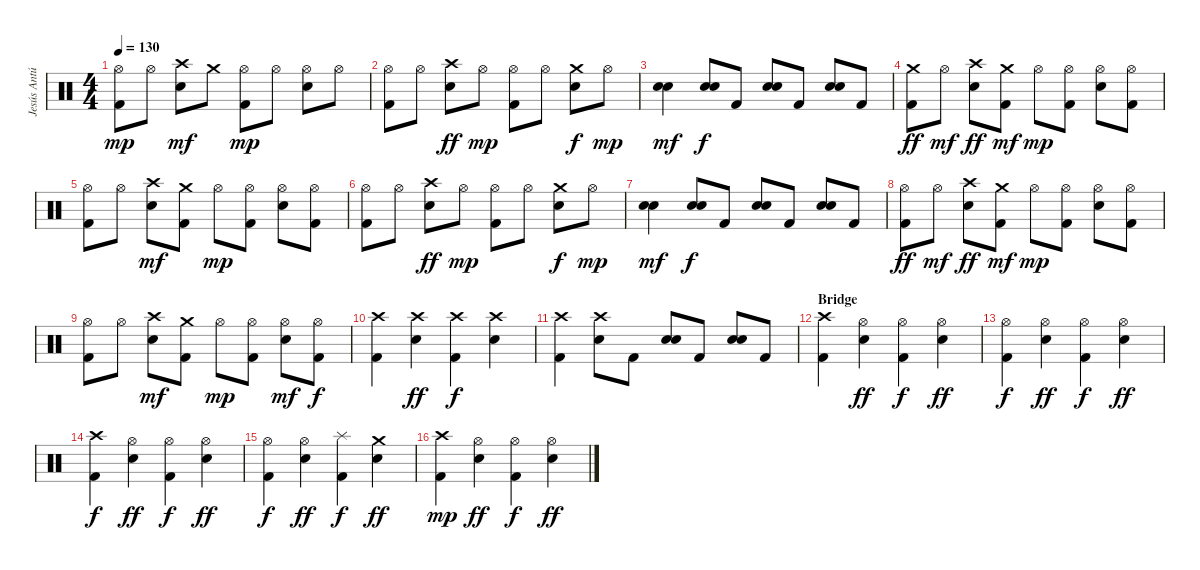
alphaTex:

\track ("Jesús Antúnez (Bateria)" "Jesús Antú") {instrument percussion}
\staff {score}
\articulation defaults
\ts (4 4)
\tempo 130
\clef neutral
\ks c
("Hi-Hat (open)" "Kick (hit) 2").8{dy mp} "Hi-Hat (open)".8 ("Snare (hit) 2" "Crash high (hit)").8{dy mf} "Crash medium (hit)".8 ("Kick (hit) 2" "Hi-Hat (open)").8{dy mp} "Hi-Hat (open)".8 ("Snare (hit) 2" "Hi-Hat (open)").8 "Hi-Hat (open)".8 |
("Hi-Hat (open)" "Kick (hit) 2").8 "Hi-Hat (open)".8 ("Snare (hit) 2" "Crash high (hit)").8{dy ff} "Hi-Hat (open)".8{dy mp} ("Kick (hit) 2" "Hi-Hat (open)").8 "Hi-Hat (open)".8 ("Snare (hit) 2" "Crash medium (hit)").8{dy f} "Hi-Hat (open)".8{dy mp} |
("Snare (hit) 2" "Snare (hit) 2").4{dy mf} ("Snare (hit) 2" "Snare (hit) 2").8{dy f} "Kick (hit) 2".8 ("Snare (hit) 2" "Snare (hit) 2").8 "Kick (hit) 2".8 ("Snare (hit) 2" "Snare (hit) 2").8 "Kick (hit) 2".8 |
("Crash medium (hit)" "Kick (hit) 2").8{dy ff} "Hi-Hat (open)".8{dy mf} ("Snare (hit) 2" "Crash high (hit)").8{dy ff} ("Kick (hit) 2" "Crash medium (hit)").8{dy mf} "Hi-Hat (open)".8{dy mp} ("Kick (hit) 2" "Hi-Hat (open)").8 ("Snare (hit) 2" "Hi-Hat (open)").8 ("Kick (hit) 2" "Hi-Hat (open)").8 |
("Hi-Hat (open)" "Kick (hit) 2").8 "Hi-Hat (open)".8 ("Snare (hit) 2" "Crash high (hit)").8{dy mf} ("Kick (hit) 2" "Crash medium (hit)").8 "Hi-Hat (open)".8{dy mp} ("Kick (hit) 2" "Hi-Hat (open)").8 ("Snare (hit) 2" "Hi-Hat (open)").8 ("Kick (hit) 2" "Hi-Hat (open)").8 |
("Hi-Hat (open)" "Kick (hit) 2").8 "Hi-Hat (open)".8 ("Snare (hit) 2" "Crash high (hit)").8{dy ff} "Hi-Hat (open)".8{dy mp} ("Kick (hit) 2" "Hi-Hat (open)").8 "Hi-Hat (open)".8 ("Snare (hit) 2" "Crash medium (hit)").8{dy f} "Hi-Hat (open)".8{dy mp} |
("Snare (hit) 2" "Snare (hit) 2").4{dy mf} ("Snare (hit) 2" "Snare (hit) 2").8{dy f} "Kick (hit) 2".8 ("Snare (hit) 2" "Snare (hit) 2").8 "Kick (hit) 2".8 ("Snare (hit) 2" "Snare (hit) 2").8 "Kick (hit) 2".8 |
("Hi-Hat (open)" "Kick (hit) 2").8{dy ff} "Hi-Hat (open)".8{dy mf} ("Snare (hit) 2" "Crash high (hit)").8{dy ff} ("Kick (hit) 2" "Crash medium (hit)").8{dy mf} "Hi-Hat (open)".8{dy mp} ("Kick (hit) 2" "Hi-Hat (open)").8 ("Snare (hit) 2" "Hi-Hat (open)").8 ("Kick (hit) 2" "Hi-Hat (open)").8 |
("Hi-Hat (open)" "Kick (hit) 2").8 "Hi-Hat (open)".8 ("Snare (hit) 2" "Crash high (hit)").8{dy mf} ("Kick (hit) 2" "Crash medium (hit)").8 "Hi-Hat (open)".8{dy mp} ("Kick (hit) 2" "Hi-Hat (open)").8 ("Snare (hit) 2" "Hi-Hat (open)").8{dy mf} ("Kick (hit) 2" "Hi-Hat (open)").8{dy f} |
("Crash high (hit)" "Kick (hit) 2").4 ("Snare (hit) 2" "Crash high (hit)").4{dy ff} ("Kick (hit) 2" "Crash high (hit)").4{dy f} ("Snare (hit) 2" "Crash high (hit)").4 |
("Crash high (hit)" "Kick (hit) 2").4 ("Snare (hit) 2" "Crash high (hit)").8 "Kick (hit) 2".8 ("Snare (hit) 2" "Snare (hit) 2").8 "Kick (hit) 2".8 ("Snare (hit) 2" "Snare (hit) 2").8 "Kick (hit) 2".8 |
\section ("" "Bridge")
("Crash high (hit)" "Kick (hit) 2").4 ("Snare (hit) 2" "Hi-Hat (open)").4{dy ff} ("Kick (hit) 2" "Hi-Hat (open)").4{dy f} ("Snare (hit) 2" "Hi-Hat (open)").4{dy ff} |
("Hi-Hat (open)" "Kick (hit) 2").4{dy f} ("Snare (hit) 2" "Hi-Hat (open)").4{dy ff} ("Kick (hit) 2" "Hi-Hat (open)").4{dy f} ("Snare (hit) 2" "Hi-Hat (open)").4{dy ff} |
("Crash high (hit)" "Kick (hit) 2").4{dy f} ("Snare (hit) 2" "Hi-Hat (open)").4{dy ff} ("Kick (hit) 2" "Hi-Hat (open)").4{dy f} ("Snare (hit) 2" "Hi-Hat (open)").4{dy ff} |
("Hi-Hat (open)" "Kick (hit) 2").4{dy f} ("Snare (hit) 2" "Hi-Hat (open)").4{dy ff} ("Kick (hit) 2" "Splash (hit)").4{dy f} ("Snare (hit) 2" "Crash medium (hit)").4{dy ff} |
("Crash high (hit)" "Kick (hit) 2").4{dy mp} ("Snare (hit) 2" "Hi-Hat (open)").4{dy ff} ("Kick (hit) 2" "Hi-Hat (open)").4{dy f} ("Snare (hit) 2" "Hi-Hat (open)").4{dy ff}
